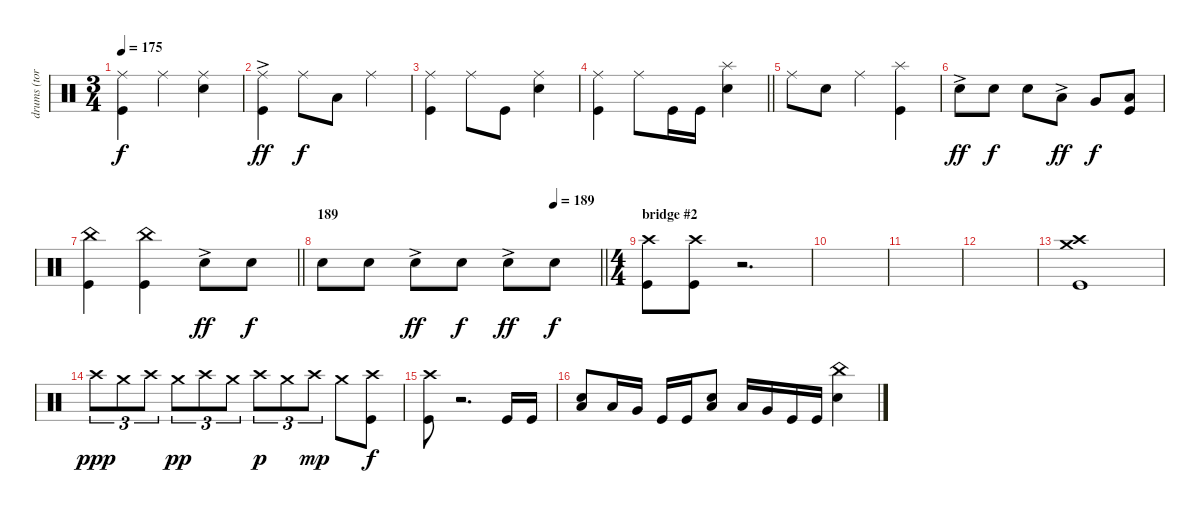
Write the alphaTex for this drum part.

\track ("drums (tora)" "drums (tor") {instrument percussion}
\staff {score}
\articulation defaults
\ts (3 4)
\tempo 175
\clef neutral
\ks c
("Ride (middle)" "Kick (hit)").4{dy f} "Ride (middle)".4 ("Ride (middle)" "Snare (hit) 2").4 |
("Ride (middle)"{ac} "Kick (hit)"{ac}).4{dy ff} "Ride (middle)".8{dy f} "Low Tom (hit)".8 "Ride (middle)".4 |
("Ride (middle)" "Kick (hit)").4 "Ride (middle)".8 "Kick (hit)".8 ("Ride (middle)" "Snare (hit) 2").4 |
\barLineRight lightlight
("Ride (middle)" "Kick (hit)").4 "Ride (middle)".8 "Kick (hit)".16 "Kick (hit)".16 ("Splash (hit)" "Snare (hit) 2").4 |
\section ("" "")
"Ride (middle)".8 "Snare (hit) 2".8 "Ride (middle)".4 ("Splash (hit)" "Kick (hit)").4 |
"Snare (hit) 2"{ac}.8{dy ff} "Snare (hit) 2".8{dy f} "Snare (hit) 2".8 "Low Tom (hit)"{ac}.8{dy ff} "Very Low Tom (hit)".8{dy f} ("Low Floor Tom (hit)" "Kick (hit)").8 |
\barLineRight lightlight
("China (hit)" "Kick (hit)").4 ("China (hit)" "Kick (hit)").4 "Snare (hit) 2"{ac}.8{dy ff} "Snare (hit) 2".8{dy f} |
\section ("" "189")
\tempo (189 0.8333333333333334)
\barLineRight lightlight "Snare (hit) 2".8 "Snare (hit) 2".8 "Snare (hit) 2"{ac}.8{dy ff} "Snare (hit) 2".8{dy f} "Snare (hit) 2"{ac}.8{dy ff} "Snare (hit) 2".8{dy f}
|
\ts (4 4)
\section ("" "bridge #2")
("Crash high (hit)" "Kick (hit)").8 ("Crash high (hit)" "Kick (hit)").8 r.2{d} |
|
|
|
("Crash high (hit)" "Crash medium (hit)" "Kick (hit)").1 |
"Crash high (hit)".8{tu (3 2) dy ppp} "Crash medium (hit)".8{tu (3 2)} "Crash high (hit)".8{tu (3 2)} "Crash medium (hit)".8{tu (3 2) dy pp} "Crash high (hit)".8{tu (3 2)} "Crash medium (hit)".8{tu (3 2)} "Crash high (hit)".8{tu (3 2) dy p} "Crash medium (hit)".8{tu (3 2)} "Crash high (hit)".8{tu (3 2) dy mp} "Crash medium (hit)".8 ("Crash high (hit)" "Kick (hit)").8{dy f} |
("Crash high (hit)" "Kick (hit)").8 r.2{d} "Kick (hit)".16 "Kick (hit)".16 |
("Snare (hit) 2" "Low Floor Tom (hit)").8 "Low Tom (hit)".16 "Very Low Tom (hit)".16 "Kick (hit)".16 "Kick (hit)".16 ("Snare (hit) 2" "Low Floor Tom (hit)").8 "Low Tom (hit)".16 "Very Low Tom (hit)".16 "Kick (hit)".16 "Kick (hit)".16 ("China (hit)" "Snare (hit) 2").4
